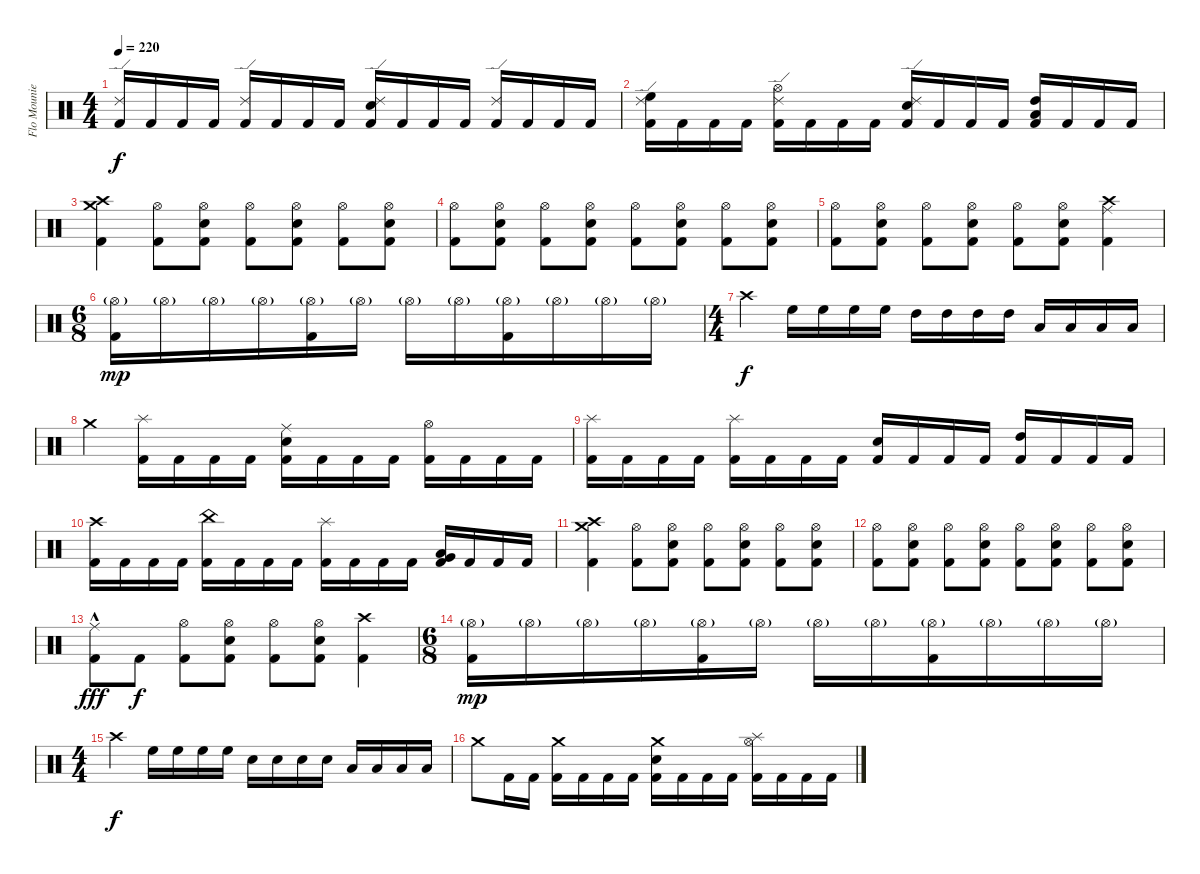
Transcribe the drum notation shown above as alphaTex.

\track ("Flo Mounier" "Flo Mounie") {instrument percussion}
\staff {score}
\articulation defaults
\ts (4 4)
\tempo 220
\clef neutral
\ks c
("Ride (edge) 2" "Kick (hit) 2").16{dy f} "Kick (hit) 2".16 "Kick (hit) 2".16 "Kick (hit) 2".16 ("Ride (edge) 2" "Kick (hit) 2").16 "Kick (hit) 2".16 "Kick (hit) 2".16 "Kick (hit) 2".16 ("Ride (edge) 2" "Snare (hit) 2" "Kick (hit) 2").16 "Kick (hit) 2".16 "Kick (hit) 2".16 "Kick (hit) 2".16 ("Ride (edge) 2" "Kick (hit) 2").16 "Kick (hit) 2".16 "Kick (hit) 2".16 "Kick (hit) 2".16 |
("Ride (edge) 2" "High Floor Tom (hit)" "Kick (hit) 2").16 "Kick (hit) 2".16 "Kick (hit) 2".16 "Kick (hit) 2".16 ("Ride (edge) 2" "Hi-Hat (open)" "Kick (hit) 2").16 "Kick (hit) 2".16 "Kick (hit) 2".16 "Kick (hit) 2".16 ("Ride (edge) 2" "Snare (hit) 2" "Kick (hit) 2").16 "Kick (hit) 2".16 "Kick (hit) 2".16 "Kick (hit) 2".16 ("High Tom (hit)" "Low Tom (hit)" "Kick (hit) 2").16 "Kick (hit) 2".16 "Kick (hit) 2".16 "Kick (hit) 2".16 |
("Crash medium (hit)" "Crash high (hit)" "Kick (hit) 2").4 ("Hi-Hat (open)" "Kick (hit) 2").8 ("Hi-Hat (open)" "Snare (hit) 2" "Kick (hit) 2").8 ("Hi-Hat (open)" "Kick (hit) 2").8 ("Hi-Hat (open)" "Snare (hit) 2" "Kick (hit) 2").8 ("Hi-Hat (open)" "Kick (hit) 2").8 ("Hi-Hat (open)" "Snare (hit) 2" "Kick (hit) 2").8 |
("Hi-Hat (open)" "Kick (hit) 2").8 ("Hi-Hat (open)" "Snare (hit) 2" "Kick (hit) 2").8 ("Hi-Hat (open)" "Kick (hit) 2").8 ("Hi-Hat (open)" "Snare (hit) 2" "Kick (hit) 2").8 ("Hi-Hat (open)" "Kick (hit) 2").8 ("Hi-Hat (open)" "Snare (hit) 2" "Kick (hit) 2").8 ("Hi-Hat (open)" "Kick (hit) 2").8 ("Hi-Hat (open)" "Snare (hit) 2" "Kick (hit) 2").8 |
("Hi-Hat (open)" "Kick (hit) 2").8 ("Hi-Hat (open)" "Snare (hit) 2" "Kick (hit) 2").8 ("Hi-Hat (open)" "Kick (hit) 2").8 ("Hi-Hat (open)" "Snare (hit) 2" "Kick (hit) 2").8 ("Hi-Hat (open)" "Kick (hit) 2").8 ("Hi-Hat (open)" "Snare (hit) 2" "Kick (hit) 2").8 ("Crash high (hit)" "Ride (middle)" "Kick (hit) 2").4 |
\ts (6 8)
("Hi-Hat (open)"{g} "Kick (hit) 2").16{dy mp} "Hi-Hat (open)"{g}.16 "Hi-Hat (open)"{g}.16 "Hi-Hat (open)"{g}.16 ("Hi-Hat (open)"{g} "Kick (hit) 2").16 "Hi-Hat (open)"{g}.16 "Hi-Hat (open)"{g}.16 "Hi-Hat (open)"{g}.16 ("Hi-Hat (open)"{g} "Kick (hit) 2").16 "Hi-Hat (open)"{g}.16 "Hi-Hat (open)"{g}.16 "Hi-Hat (open)"{g}.16 |
\ts (4 4)
"Crash high (hit)".4{dy f} "High Floor Tom (hit)".16 "High Floor Tom (hit)".16 "High Floor Tom (hit)".16 "High Floor Tom (hit)".16 "High Tom (hit)".16 "High Tom (hit)".16 "High Tom (hit)".16 "High Tom (hit)".16 "Low Tom (hit)".16 "Low Tom (hit)".16 "Low Tom (hit)".16 "Low Tom (hit)".16 |
"Crash medium (hit)".4 ("Splash (hit)" "Kick (hit) 2").16 "Kick (hit) 2".16 "Kick (hit) 2".16 "Kick (hit) 2".16 ("Ride (middle)" "Snare (hit) 2" "Kick (hit) 2").16 "Kick (hit) 2".16 "Kick (hit) 2".16 "Kick (hit) 2".16 ("Hi-Hat (open)" "Kick (hit) 2").16 "Kick (hit) 2".16 "Kick (hit) 2".16 "Kick (hit) 2".16 |
("Splash (hit)" "Kick (hit) 2").16 "Kick (hit) 2".16 "Kick (hit) 2".16 "Kick (hit) 2".16 ("Splash (hit)" "Kick (hit) 2").16 "Kick (hit) 2".16 "Kick (hit) 2".16 "Kick (hit) 2".16 ("Snare (hit) 2" "Kick (hit) 2").16 "Kick (hit) 2".16 "Kick (hit) 2".16 "Kick (hit) 2".16 ("High Tom (hit)" "Kick (hit) 2").16 "Kick (hit) 2".16 "Kick (hit) 2".16 "Kick (hit) 2".16 |
("Crash high (hit)" "Kick (hit) 2").16 "Kick (hit) 2".16 "Kick (hit) 2".16 "Kick (hit) 2".16 ("China (hit)" "Kick (hit) 2").16 "Kick (hit) 2".16 "Kick (hit) 2".16 "Kick (hit) 2".16 ("Splash (hit)" "Kick (hit) 2").16 "Kick (hit) 2".16 "Kick (hit) 2".16 "Kick (hit) 2".16 ("Low Tom (hit)" "Very Low Tom (hit)" "Kick (hit) 2").16 "Kick (hit) 2".16 "Kick (hit) 2".16 "Kick (hit) 2".16 |
("Crash medium (hit)" "Crash high (hit)" "Kick (hit) 2").4 ("Hi-Hat (open)" "Kick (hit) 2").8 ("Hi-Hat (open)" "Snare (hit) 2" "Kick (hit) 2").8 ("Hi-Hat (open)" "Kick (hit) 2").8 ("Hi-Hat (open)" "Snare (hit) 2" "Kick (hit) 2").8 ("Hi-Hat (open)" "Kick (hit) 2").8 ("Hi-Hat (open)" "Snare (hit) 2" "Kick (hit) 2").8 |
("Hi-Hat (open)" "Kick (hit) 2").8 ("Hi-Hat (open)" "Snare (hit) 2" "Kick (hit) 2").8 ("Hi-Hat (open)" "Kick (hit) 2").8 ("Hi-Hat (open)" "Snare (hit) 2" "Kick (hit) 2").8 ("Hi-Hat (open)" "Kick (hit) 2").8 ("Hi-Hat (open)" "Snare (hit) 2" "Kick (hit) 2").8 ("Hi-Hat (open)" "Kick (hit) 2").8 ("Hi-Hat (open)" "Snare (hit) 2" "Kick (hit) 2").8 |
("Ride (middle)"{hac} "Kick (hit) 2").8{dy fff} "Kick (hit) 2".8{dy f} ("Hi-Hat (open)" "Kick (hit) 2").8 ("Hi-Hat (open)" "Snare (hit) 2" "Kick (hit) 2").8 ("Hi-Hat (open)" "Kick (hit) 2").8 ("Hi-Hat (open)" "Snare (hit) 2" "Kick (hit) 2").8 ("Crash high (hit)" "Kick (hit) 2").4 |
\ts (6 8)
("Hi-Hat (open)"{g} "Kick (hit) 2").16{dy mp} "Hi-Hat (open)"{g}.16 "Hi-Hat (open)"{g}.16 "Hi-Hat (open)"{g}.16 ("Hi-Hat (open)"{g} "Kick (hit) 2").16 "Hi-Hat (open)"{g}.16 "Hi-Hat (open)"{g}.16 "Hi-Hat (open)"{g}.16 ("Hi-Hat (open)"{g} "Kick (hit) 2").16 "Hi-Hat (open)"{g}.16 "Hi-Hat (open)"{g}.16 "Hi-Hat (open)"{g}.16 |
\ts (4 4)
"Crash high (hit)".4{dy f} "High Floor Tom (hit)".16 "High Floor Tom (hit)".16 "High Floor Tom (hit)".16 "High Floor Tom (hit)".16 "Snare (hit) 2".16 "Snare (hit) 2".16 "Snare (hit) 2".16 "Snare (hit) 2".16 "Low Tom (hit)".16 "Low Tom (hit)".16 "Low Tom (hit)".16 "Low Tom (hit)".16 |
"Crash medium (hit)".8 "Kick (hit) 2".16 "Kick (hit) 2".16 ("Crash medium (hit)" "Kick (hit) 2").16 "Kick (hit) 2".16 "Kick (hit) 2".16 "Kick (hit) 2".16 ("Crash medium (hit)" "Snare (hit) 2" "Kick (hit) 2").16 "Kick (hit) 2".16 "Kick (hit) 2".16 "Kick (hit) 2".16 ("Hi-Hat (open)" "Splash (hit)" "Kick (hit) 2").16 "Kick (hit) 2".16 "Kick (hit) 2".16 "Kick (hit) 2".16
